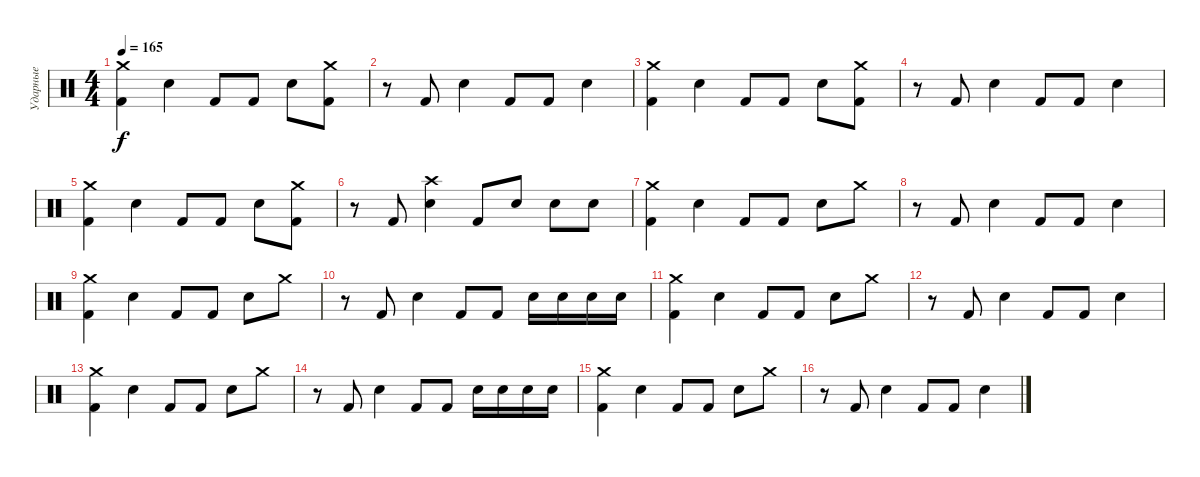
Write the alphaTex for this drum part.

\track ("Ударные" "Ударные") {instrument percussion}
\staff {score}
\articulation defaults
\ts (4 4)
\tempo 165
\clef neutral
\ks c
("Crash medium (hit)" "Kick (hit) 2").4{dy f} "Snare (hit) 2".4 "Kick (hit) 2".8 "Kick (hit) 2".8 "Snare (hit) 2".8 ("Crash medium (hit)" "Kick (hit) 2").8 |
r.8 "Kick (hit) 2".8 "Snare (hit) 2".4 "Kick (hit) 2".8 "Kick (hit) 2".8 "Snare (hit) 2".4 |
("Crash medium (hit)" "Kick (hit) 2").4 "Snare (hit) 2".4 "Kick (hit) 2".8 "Kick (hit) 2".8 "Snare (hit) 2".8 ("Crash medium (hit)" "Kick (hit) 2").8 |
r.8 "Kick (hit) 2".8 "Snare (hit) 2".4 "Kick (hit) 2".8 "Kick (hit) 2".8 "Snare (hit) 2".4 |
("Crash medium (hit)" "Kick (hit) 2").4 "Snare (hit) 2".4 "Kick (hit) 2".8 "Kick (hit) 2".8 "Snare (hit) 2".8 ("Crash medium (hit)" "Kick (hit) 2").8 |
r.8 "Kick (hit) 2".8 ("Crash high (hit)" "Snare (hit) 2").4 "Kick (hit) 2".8 "Snare (hit) 2".8 "Snare (hit) 2".8 "Snare (hit) 2".8 |
("Crash medium (hit)" "Kick (hit) 2").4 "Snare (hit) 2".4 "Kick (hit) 2".8 "Kick (hit) 2".8 "Snare (hit) 2".8 "Crash medium (hit)".8 |
r.8 "Kick (hit) 2".8 "Snare (hit) 2".4 "Kick (hit) 2".8 "Kick (hit) 2".8 "Snare (hit) 2".4 |
("Crash medium (hit)" "Kick (hit) 2").4 "Snare (hit) 2".4 "Kick (hit) 2".8 "Kick (hit) 2".8 "Snare (hit) 2".8 "Crash medium (hit)".8 |
r.8 "Kick (hit) 2".8 "Snare (hit) 2".4 "Kick (hit) 2".8 "Kick (hit) 2".8 "Snare (hit) 2".16 "Snare (hit) 2".16 "Snare (hit) 2".16 "Snare (hit) 2".16 |
("Crash medium (hit)" "Kick (hit) 2").4 "Snare (hit) 2".4 "Kick (hit) 2".8 "Kick (hit) 2".8 "Snare (hit) 2".8 "Crash medium (hit)".8 |
r.8 "Kick (hit) 2".8 "Snare (hit) 2".4 "Kick (hit) 2".8 "Kick (hit) 2".8 "Snare (hit) 2".4 |
("Crash medium (hit)" "Kick (hit) 2").4 "Snare (hit) 2".4 "Kick (hit) 2".8 "Kick (hit) 2".8 "Snare (hit) 2".8 "Crash medium (hit)".8 |
r.8 "Kick (hit) 2".8 "Snare (hit) 2".4 "Kick (hit) 2".8 "Kick (hit) 2".8 "Snare (hit) 2".16 "Snare (hit) 2".16 "Snare (hit) 2".16 "Snare (hit) 2".16 |
("Crash medium (hit)" "Kick (hit) 2").4 "Snare (hit) 2".4 "Kick (hit) 2".8 "Kick (hit) 2".8 "Snare (hit) 2".8 "Crash medium (hit)".8 |
r.8 "Kick (hit) 2".8 "Snare (hit) 2".4 "Kick (hit) 2".8 "Kick (hit) 2".8 "Snare (hit) 2".4
